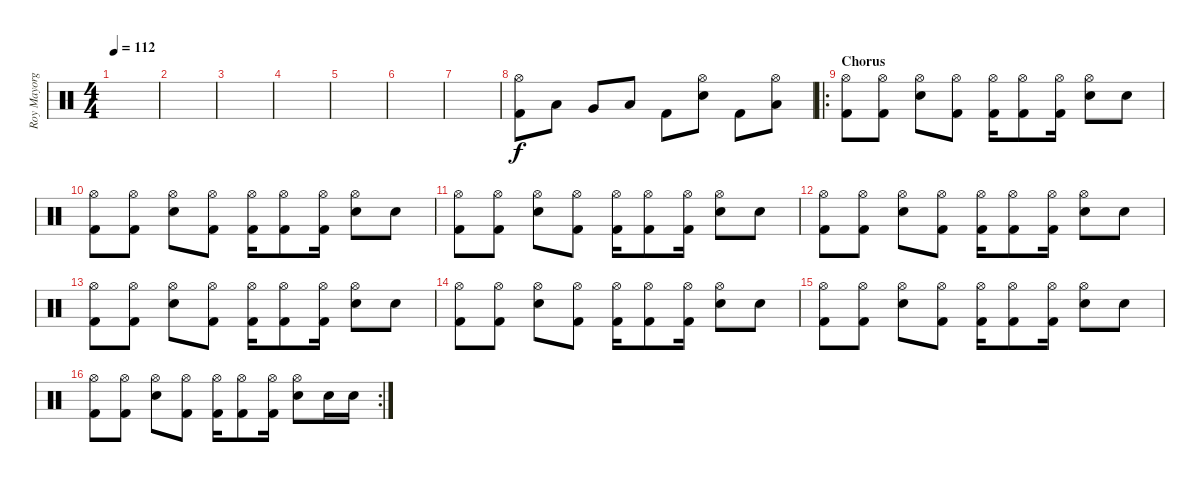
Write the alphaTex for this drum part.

\track ("Roy Mayorga" "Roy Mayorg") {instrument percussion}
\staff {score}
\articulation defaults
\ts (4 4)
\tempo 112
\clef neutral
\ks c
|
|
|
|
|
|
|
("Hi-Hat (open)" "Kick (hit) 2").8 "Low Tom (hit)".8 "Very Low Tom (hit)".8 "Low Floor Tom (hit)".8 "Kick (hit) 2".8 ("Hi-Hat (open)" "Snare (hit) 2").8 "Kick (hit) 2".8 ("Hi-Hat (open)" "Low Tom (hit)").8 |
\ro
\section ("" "Chorus")
("Hi-Hat (open)" "Kick (hit) 2").8 ("Hi-Hat (open)" "Kick (hit) 2").8 ("Hi-Hat (open)" "Snare (hit) 2").8 ("Hi-Hat (open)" "Kick (hit) 2").8 ("Hi-Hat (open)" "Kick (hit) 2").16 ("Hi-Hat (open)" "Kick (hit) 2").8 ("Hi-Hat (open)" "Kick (hit) 2").16 ("Hi-Hat (open)" "Snare (hit) 2").8 "Snare (hit) 2".8 |
("Hi-Hat (open)" "Kick (hit) 2").8 ("Hi-Hat (open)" "Kick (hit) 2").8 ("Hi-Hat (open)" "Snare (hit) 2").8 ("Hi-Hat (open)" "Kick (hit) 2").8 ("Hi-Hat (open)" "Kick (hit) 2").16 ("Hi-Hat (open)" "Kick (hit) 2").8 ("Hi-Hat (open)" "Kick (hit) 2").16 ("Hi-Hat (open)" "Snare (hit) 2").8 "Snare (hit) 2".8 |
("Hi-Hat (open)" "Kick (hit) 2").8 ("Hi-Hat (open)" "Kick (hit) 2").8 ("Hi-Hat (open)" "Snare (hit) 2").8 ("Hi-Hat (open)" "Kick (hit) 2").8 ("Hi-Hat (open)" "Kick (hit) 2").16 ("Hi-Hat (open)" "Kick (hit) 2").8 ("Hi-Hat (open)" "Kick (hit) 2").16 ("Hi-Hat (open)" "Snare (hit) 2").8 "Snare (hit) 2".8 |
("Hi-Hat (open)" "Kick (hit) 2").8 ("Hi-Hat (open)" "Kick (hit) 2").8 ("Hi-Hat (open)" "Snare (hit) 2").8 ("Hi-Hat (open)" "Kick (hit) 2").8 ("Hi-Hat (open)" "Kick (hit) 2").16 ("Hi-Hat (open)" "Kick (hit) 2").8 ("Hi-Hat (open)" "Kick (hit) 2").16 ("Hi-Hat (open)" "Snare (hit) 2").8 "Snare (hit) 2".8 |
("Hi-Hat (open)" "Kick (hit) 2").8 ("Hi-Hat (open)" "Kick (hit) 2").8 ("Hi-Hat (open)" "Snare (hit) 2").8 ("Hi-Hat (open)" "Kick (hit) 2").8 ("Hi-Hat (open)" "Kick (hit) 2").16 ("Hi-Hat (open)" "Kick (hit) 2").8 ("Hi-Hat (open)" "Kick (hit) 2").16 ("Hi-Hat (open)" "Snare (hit) 2").8 "Snare (hit) 2".8 |
("Hi-Hat (open)" "Kick (hit) 2").8 ("Hi-Hat (open)" "Kick (hit) 2").8 ("Hi-Hat (open)" "Snare (hit) 2").8 ("Hi-Hat (open)" "Kick (hit) 2").8 ("Hi-Hat (open)" "Kick (hit) 2").16 ("Hi-Hat (open)" "Kick (hit) 2").8 ("Hi-Hat (open)" "Kick (hit) 2").16 ("Hi-Hat (open)" "Snare (hit) 2").8 "Snare (hit) 2".8 |
("Hi-Hat (open)" "Kick (hit) 2").8 ("Hi-Hat (open)" "Kick (hit) 2").8 ("Hi-Hat (open)" "Snare (hit) 2").8 ("Hi-Hat (open)" "Kick (hit) 2").8 ("Hi-Hat (open)" "Kick (hit) 2").16 ("Hi-Hat (open)" "Kick (hit) 2").8 ("Hi-Hat (open)" "Kick (hit) 2").16 ("Hi-Hat (open)" "Snare (hit) 2").8 "Snare (hit) 2".8 |
\rc 2
("Hi-Hat (open)" "Kick (hit) 2").8 ("Hi-Hat (open)" "Kick (hit) 2").8 ("Hi-Hat (open)" "Snare (hit) 2").8 ("Hi-Hat (open)" "Kick (hit) 2").8 ("Hi-Hat (open)" "Kick (hit) 2").16 ("Hi-Hat (open)" "Kick (hit) 2").8 ("Hi-Hat (open)" "Kick (hit) 2").16 ("Hi-Hat (open)" "Snare (hit) 2").8 "Snare (hit) 2".16 "Snare (hit) 2".16
